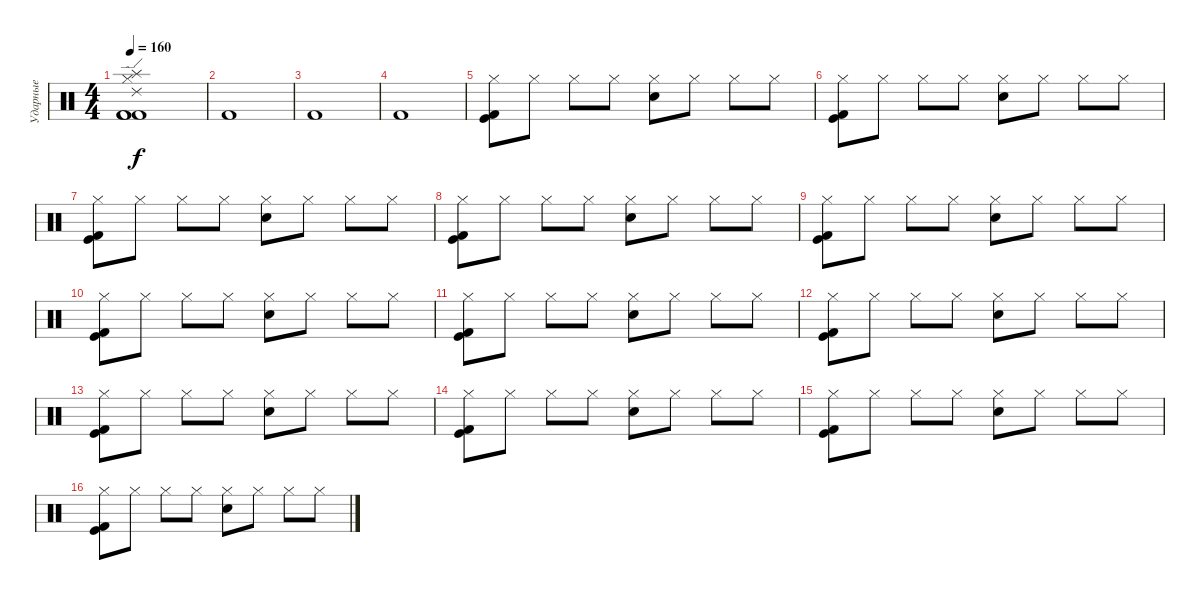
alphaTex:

\track ("Ударные" "Ударные") {instrument percussion}
\staff {score}
\articulation defaults
\ts (4 4)
\tempo 160
\clef neutral
\ks c
("Ride (edge) 2" "Kick (hit) 2" "Kick (hit) 2" "Hi-Hat (closed)" "Kick (hit) 2" "Splash (hit)").1{dy f} |
"Kick (hit) 2".1 |
"Kick (hit) 2".1 |
"Kick (hit) 2".1 |
("Kick (hit) 2" "Hi-Hat (closed)" "Kick (hit)").8 "Hi-Hat (closed)".8 "Hi-Hat (closed)".8 "Hi-Hat (closed)".8 ("Hi-Hat (closed)" "Electric Snare (hit)").8 "Hi-Hat (closed)".8 "Hi-Hat (closed)".8 "Hi-Hat (closed)".8 |
("Kick (hit) 2" "Hi-Hat (closed)" "Kick (hit)").8 "Hi-Hat (closed)".8 "Hi-Hat (closed)".8 "Hi-Hat (closed)".8 ("Hi-Hat (closed)" "Electric Snare (hit)").8 "Hi-Hat (closed)".8 "Hi-Hat (closed)".8 "Hi-Hat (closed)".8 |
("Kick (hit) 2" "Hi-Hat (closed)" "Kick (hit)").8 "Hi-Hat (closed)".8 "Hi-Hat (closed)".8 "Hi-Hat (closed)".8 ("Hi-Hat (closed)" "Electric Snare (hit)").8 "Hi-Hat (closed)".8 "Hi-Hat (closed)".8 "Hi-Hat (closed)".8 |
("Kick (hit) 2" "Hi-Hat (closed)" "Kick (hit)").8 "Hi-Hat (closed)".8 "Hi-Hat (closed)".8 "Hi-Hat (closed)".8 ("Hi-Hat (closed)" "Electric Snare (hit)").8 "Hi-Hat (closed)".8 "Hi-Hat (closed)".8 "Hi-Hat (closed)".8 |
("Kick (hit) 2" "Hi-Hat (closed)" "Kick (hit)").8 "Hi-Hat (closed)".8 "Hi-Hat (closed)".8 "Hi-Hat (closed)".8 ("Hi-Hat (closed)" "Electric Snare (hit)").8 "Hi-Hat (closed)".8 "Hi-Hat (closed)".8 "Hi-Hat (closed)".8 |
("Kick (hit) 2" "Hi-Hat (closed)" "Kick (hit)").8 "Hi-Hat (closed)".8 "Hi-Hat (closed)".8 "Hi-Hat (closed)".8 ("Hi-Hat (closed)" "Electric Snare (hit)").8 "Hi-Hat (closed)".8 "Hi-Hat (closed)".8 "Hi-Hat (closed)".8 |
("Kick (hit) 2" "Hi-Hat (closed)" "Kick (hit)").8 "Hi-Hat (closed)".8 "Hi-Hat (closed)".8 "Hi-Hat (closed)".8 ("Hi-Hat (closed)" "Electric Snare (hit)").8 "Hi-Hat (closed)".8 "Hi-Hat (closed)".8 "Hi-Hat (closed)".8 |
("Kick (hit) 2" "Hi-Hat (closed)" "Kick (hit)").8 "Hi-Hat (closed)".8 "Hi-Hat (closed)".8 "Hi-Hat (closed)".8 ("Hi-Hat (closed)" "Electric Snare (hit)").8 "Hi-Hat (closed)".8 "Hi-Hat (closed)".8 "Hi-Hat (closed)".8 |
("Kick (hit) 2" "Hi-Hat (closed)" "Kick (hit)").8 "Hi-Hat (closed)".8 "Hi-Hat (closed)".8 "Hi-Hat (closed)".8 ("Hi-Hat (closed)" "Electric Snare (hit)").8 "Hi-Hat (closed)".8 "Hi-Hat (closed)".8 "Hi-Hat (closed)".8 |
("Kick (hit) 2" "Hi-Hat (closed)" "Kick (hit)").8 "Hi-Hat (closed)".8 "Hi-Hat (closed)".8 "Hi-Hat (closed)".8 ("Hi-Hat (closed)" "Electric Snare (hit)").8 "Hi-Hat (closed)".8 "Hi-Hat (closed)".8 "Hi-Hat (closed)".8 |
("Kick (hit) 2" "Hi-Hat (closed)" "Kick (hit)").8 "Hi-Hat (closed)".8 "Hi-Hat (closed)".8 "Hi-Hat (closed)".8 ("Hi-Hat (closed)" "Electric Snare (hit)").8 "Hi-Hat (closed)".8 "Hi-Hat (closed)".8 "Hi-Hat (closed)".8 |
("Kick (hit) 2" "Hi-Hat (closed)" "Kick (hit)").8 "Hi-Hat (closed)".8 "Hi-Hat (closed)".8 "Hi-Hat (closed)".8 ("Hi-Hat (closed)" "Electric Snare (hit)").8 "Hi-Hat (closed)".8 "Hi-Hat (closed)".8 "Hi-Hat (closed)".8
